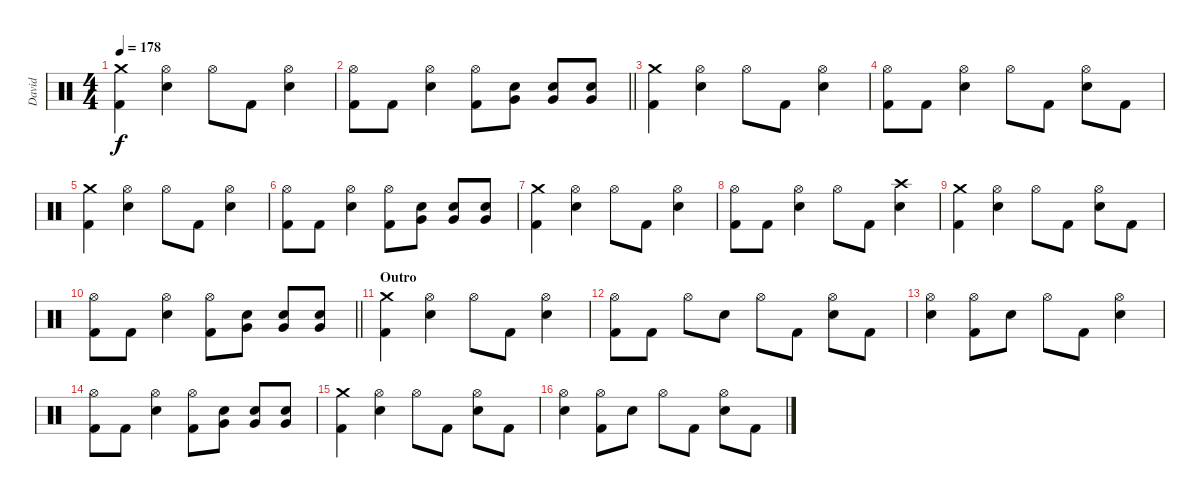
\track ("David" "David") {instrument percussion}
\staff {score}
\articulation defaults
\ts (4 4)
\tempo 178
\clef neutral
\ks c
("Crash medium (hit)" "Kick (hit) 2").4{dy f} ("Hi-Hat (open)" "Electric Snare (hit)").4 "Hi-Hat (open)".8 "Kick (hit) 2".8 ("Hi-Hat (open)" "Electric Snare (hit)").4 |
\barLineRight lightlight
("Hi-Hat (open)" "Kick (hit) 2").8 "Kick (hit) 2".8 ("Hi-Hat (open)" "Electric Snare (hit)").4 ("Hi-Hat (open)" "Kick (hit) 2").8 ("Electric Snare (hit)" "Very Low Tom (hit)").8 ("Electric Snare (hit)" "Very Low Tom (hit)").8 ("Electric Snare (hit)" "Very Low Tom (hit)").8 |
("Crash medium (hit)" "Kick (hit) 2").4 ("Hi-Hat (open)" "Electric Snare (hit)").4 "Hi-Hat (open)".8 "Kick (hit) 2".8 ("Hi-Hat (open)" "Electric Snare (hit)").4 |
("Hi-Hat (open)" "Kick (hit) 2").8 "Kick (hit) 2".8 ("Hi-Hat (open)" "Electric Snare (hit)").4 "Hi-Hat (open)".8 "Kick (hit) 2".8 ("Hi-Hat (open)" "Electric Snare (hit)").8 "Kick (hit) 2".8 |
("Crash medium (hit)" "Kick (hit) 2").4 ("Hi-Hat (open)" "Electric Snare (hit)").4 "Hi-Hat (open)".8 "Kick (hit) 2".8 ("Hi-Hat (open)" "Electric Snare (hit)").4 |
("Hi-Hat (open)" "Kick (hit) 2").8 "Kick (hit) 2".8 ("Hi-Hat (open)" "Electric Snare (hit)").4 ("Hi-Hat (open)" "Kick (hit) 2").8 ("Electric Snare (hit)" "Very Low Tom (hit)").8 ("Electric Snare (hit)" "Very Low Tom (hit)").8 ("Electric Snare (hit)" "Very Low Tom (hit)").8 |
("Crash medium (hit)" "Kick (hit) 2").4 ("Hi-Hat (open)" "Electric Snare (hit)").4 "Hi-Hat (open)".8 "Kick (hit) 2".8 ("Hi-Hat (open)" "Electric Snare (hit)").4 |
("Hi-Hat (open)" "Kick (hit) 2").8 "Kick (hit) 2".8 ("Hi-Hat (open)" "Electric Snare (hit)").4 "Hi-Hat (open)".8 "Kick (hit) 2".8 ("Crash high (hit)" "Electric Snare (hit)").4 |
("Crash medium (hit)" "Kick (hit) 2").4 ("Hi-Hat (open)" "Electric Snare (hit)").4 "Hi-Hat (open)".8 "Kick (hit) 2".8 ("Hi-Hat (open)" "Electric Snare (hit)").8 "Kick (hit) 2".8 |
\barLineRight lightlight
("Hi-Hat (open)" "Kick (hit) 2").8 "Kick (hit) 2".8 ("Hi-Hat (open)" "Electric Snare (hit)").4 ("Hi-Hat (open)" "Kick (hit) 2").8 ("Electric Snare (hit)" "Very Low Tom (hit)").8 ("Electric Snare (hit)" "Very Low Tom (hit)").8 ("Electric Snare (hit)" "Very Low Tom (hit)").8 |
\section ("" "Outro")
("Crash medium (hit)" "Kick (hit) 2").4 ("Hi-Hat (open)" "Electric Snare (hit)").4 "Hi-Hat (open)".8 "Kick (hit) 2".8 ("Hi-Hat (open)" "Electric Snare (hit)").4 |
("Hi-Hat (open)" "Kick (hit) 2").8 "Kick (hit) 2".8 "Hi-Hat (open)".8 "Electric Snare (hit)".8 "Hi-Hat (open)".8 "Kick (hit) 2".8 ("Hi-Hat (open)" "Electric Snare (hit)").8 "Kick (hit) 2".8 |
("Hi-Hat (open)" "Electric Snare (hit)").4 ("Hi-Hat (open)" "Kick (hit) 2").8 "Electric Snare (hit)".8 "Hi-Hat (open)".8 "Kick (hit) 2".8 ("Hi-Hat (open)" "Electric Snare (hit)").4 |
("Hi-Hat (open)" "Kick (hit) 2").8 "Kick (hit) 2".8 ("Hi-Hat (open)" "Electric Snare (hit)").4 ("Hi-Hat (open)" "Kick (hit) 2").8 ("Electric Snare (hit)" "Very Low Tom (hit)").8 ("Electric Snare (hit)" "Very Low Tom (hit)").8 ("Electric Snare (hit)" "Very Low Tom (hit)").8 |
("Crash medium (hit)" "Kick (hit) 2").4 ("Hi-Hat (open)" "Electric Snare (hit)").4 "Hi-Hat (open)".8 "Kick (hit) 2".8 ("Hi-Hat (open)" "Electric Snare (hit)").8 "Kick (hit) 2".8 |
("Hi-Hat (open)" "Electric Snare (hit)").4 ("Hi-Hat (open)" "Kick (hit) 2").8 "Electric Snare (hit)".8 "Hi-Hat (open)".8 "Kick (hit) 2".8 ("Hi-Hat (open)" "Electric Snare (hit)").8 "Kick (hit) 2".8
